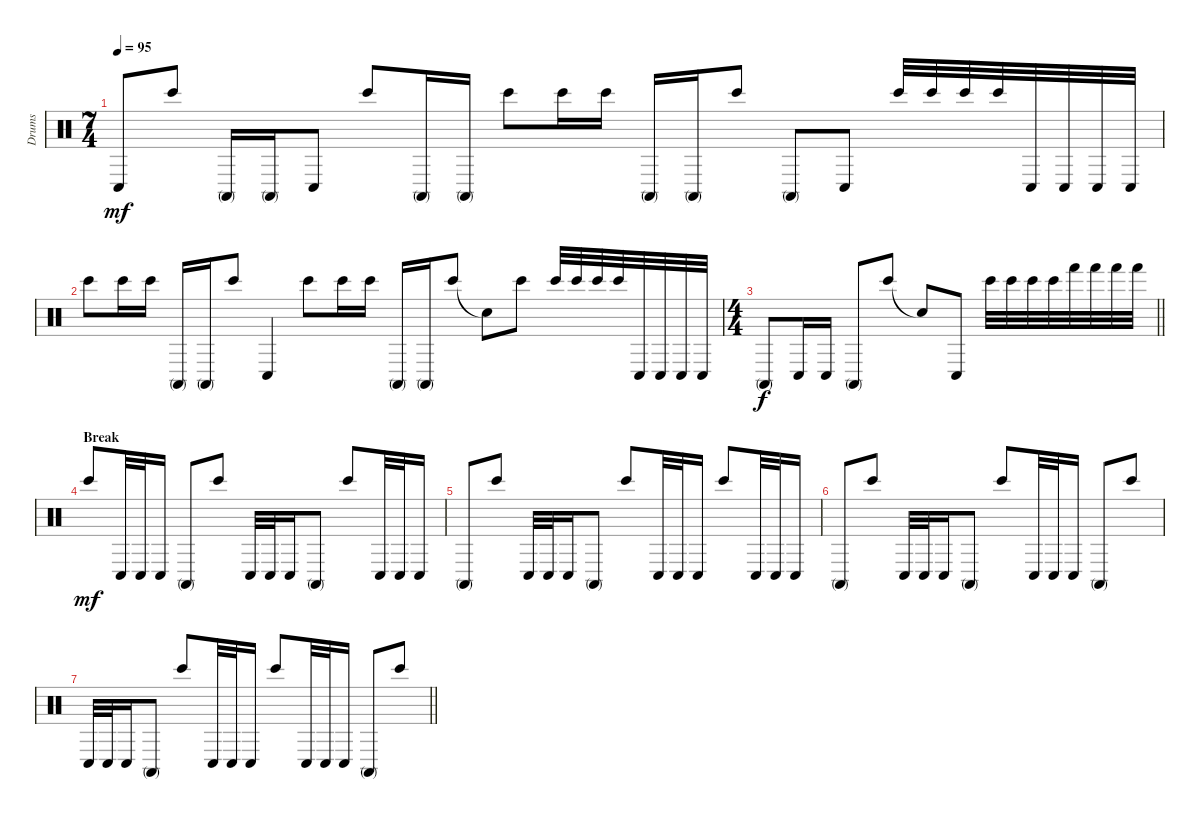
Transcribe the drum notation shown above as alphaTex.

\track ("Drums" "Drums") {instrument percussion}
\staff {score}
\articulation defaults
\ts (7 4)
\tempo 95
\clef neutral
\ks c "Conga low (hit)".8{dy mf} "Bongo High (hit)".8 "Conga high (mute)".16 "Conga high (mute)".16 "Conga low (hit)".8 "Bongo High (hit)".8 "Conga high (mute)".16 "Conga high (mute)".16 "Bongo High (hit)".8 "Bongo High (hit)".16 "Bongo High (hit)".16 "Conga high (mute)".16 "Conga high (mute)".16 "Bongo High (hit)".8 "Conga high (mute)".8 "Conga low (hit)".8 "Bongo High (hit)".32 "Bongo High (hit)".32 "Bongo High (hit)".32 "Bongo High (hit)".32 "Conga low (hit)".32 "Conga low (hit)".32 "Conga low (hit)".32 "Conga low (hit)".32
|
"Bongo High (hit)".8 "Bongo High (hit)".16 "Bongo High (hit)".16 "Conga high (mute)".16 "Conga high (mute)".16 "Bongo High (hit)".8 "Conga low (hit)".4 "Bongo High (hit)".8 "Bongo High (hit)".16 "Bongo High (hit)".16 "Conga high (mute)".16 "Conga high (mute)".16 "Bongo High (hit)".8 "Snare (hit)"{t}.8 "Bongo High (hit)".8 "Bongo High (hit)".32 "Bongo High (hit)".32 "Bongo High (hit)".32 "Bongo High (hit)".32 "Conga low (hit)".32 "Conga low (hit)".32 "Conga low (hit)".32 "Conga low (hit)".32 |
\ts (4 4)
\barLineRight lightlight "Conga high (mute)".8{dy f} "Conga low (hit)".16 "Conga low (hit)".16 "Conga high (mute)".8 "Bongo High (hit)".8 "Snare (hit)"{t}.8 "Conga low (hit)".8 "Bongo High (hit)".32 "Bongo High (hit)".32 "Bongo High (hit)".32 "Bongo High (hit)".32 "Hand (hit)".32 "Hand (hit)".32 "Hand (hit)".32 "Hand (hit)".32
|
\section ("" "Break")
"Bongo High (hit)".8{dy mf} "Conga low (hit)".32 "Conga low (hit)".32 "Conga low (hit)".16 "Conga high (mute)".8 "Bongo High (hit)".8 "Conga low (hit)".32 "Conga low (hit)".32 "Conga low (hit)".16 "Conga high (mute)".8 "Bongo High (hit)".8 "Conga low (hit)".32 "Conga low (hit)".32 "Conga low (hit)".16 |
"Conga high (mute)".8 "Bongo High (hit)".8 "Conga low (hit)".32 "Conga low (hit)".32 "Conga low (hit)".16 "Conga high (mute)".8 "Bongo High (hit)".8 "Conga low (hit)".32 "Conga low (hit)".32 "Conga low (hit)".16 "Bongo High (hit)".8 "Conga low (hit)".32 "Conga low (hit)".32 "Conga low (hit)".16 |
"Conga high (mute)".8 "Bongo High (hit)".8 "Conga low (hit)".32 "Conga low (hit)".32 "Conga low (hit)".16 "Conga high (mute)".8 "Bongo High (hit)".8 "Conga low (hit)".32 "Conga low (hit)".32 "Conga low (hit)".16 "Conga high (mute)".8 "Bongo High (hit)".8 |
\barLineRight lightlight "Conga low (hit)".32 "Conga low (hit)".32 "Conga low (hit)".16 "Conga high (mute)".8 "Bongo High (hit)".8 "Conga low (hit)".32 "Conga low (hit)".32 "Conga low (hit)".16 "Bongo High (hit)".8 "Conga low (hit)".32 "Conga low (hit)".32 "Conga low (hit)".16 "Conga high (mute)".8 "Bongo High (hit)".8
